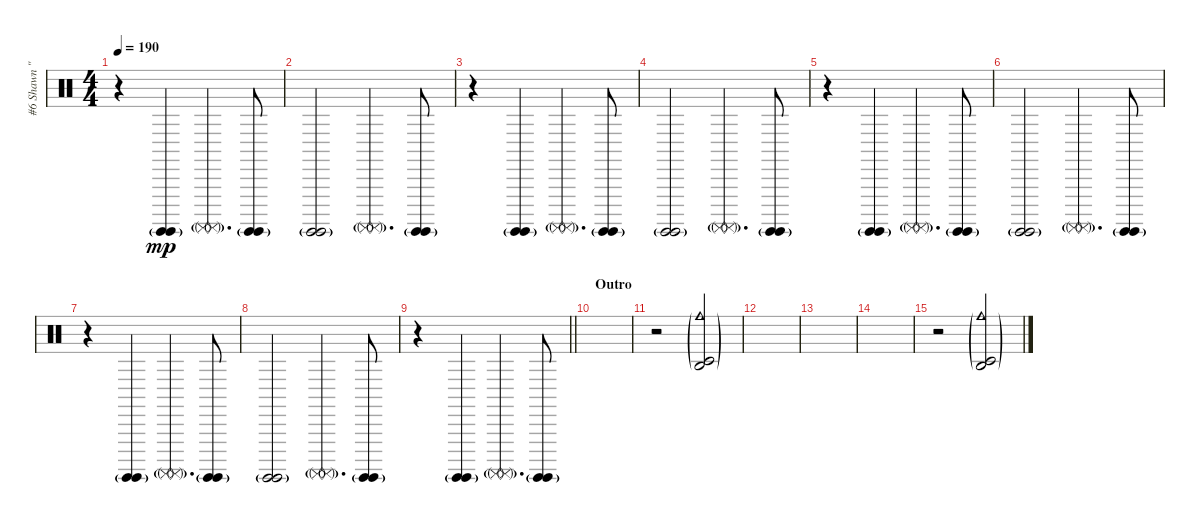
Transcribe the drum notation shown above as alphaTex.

\track ("#6 Shawn \"Clown\" Crahan" "#6 Shawn \"") {instrument percussion}
\staff {score}
\articulation defaults
\ts (4 4)
\tempo 190
\clef neutral
\ks c
r.4{dy mp} ("Surdo (hit)"{g} "Surdo (hit)"{g}).4 ("Surdo (mute)"{g} "Surdo (mute)"{g}).4{d} ("Surdo (hit)"{g} "Surdo (hit)"{g}).8 |
("Surdo (hit)"{g} "Surdo (hit)"{g}).2 ("Surdo (mute)"{g} "Surdo (mute)"{g}).4{d} ("Surdo (hit)"{g} "Surdo (hit)"{g}).8 |
r.4 ("Surdo (hit)"{g} "Surdo (hit)"{g}).4 ("Surdo (mute)"{g} "Surdo (mute)"{g}).4{d} ("Surdo (hit)"{g} "Surdo (hit)"{g}).8 |
("Surdo (hit)"{g} "Surdo (hit)"{g}).2 ("Surdo (mute)"{g} "Surdo (mute)"{g}).4{d} ("Surdo (hit)"{g} "Surdo (hit)"{g}).8 |
r.4 ("Surdo (hit)"{g} "Surdo (hit)"{g}).4 ("Surdo (mute)"{g} "Surdo (mute)"{g}).4{d} ("Surdo (hit)"{g} "Surdo (hit)"{g}).8 |
("Surdo (hit)"{g} "Surdo (hit)"{g}).2 ("Surdo (mute)"{g} "Surdo (mute)"{g}).4{d} ("Surdo (hit)"{g} "Surdo (hit)"{g}).8 |
r.4 ("Surdo (hit)"{g} "Surdo (hit)"{g}).4 ("Surdo (mute)"{g} "Surdo (mute)"{g}).4{d} ("Surdo (hit)"{g} "Surdo (hit)"{g}).8 |
("Surdo (hit)"{g} "Surdo (hit)"{g}).2 ("Surdo (mute)"{g} "Surdo (mute)"{g}).4{d} ("Surdo (hit)"{g} "Surdo (hit)"{g}).8 |
\barLineRight lightlight
r.4 ("Surdo (hit)"{g} "Surdo (hit)"{g}).4 ("Surdo (mute)"{g} "Surdo (mute)"{g}).4{d} ("Surdo (hit)"{g} "Surdo (hit)"{g}).8 |
\section ("" "Outro")
|
r.2 ("Cowbell medium (hit)"{g} "Timbale low (hit)"{g} "Agogo high (hit)"{g}).2 |
|
|
|
r.2 ("Cowbell medium (hit)"{g} "Timbale low (hit)"{g} "Agogo high (hit)"{g}).2
